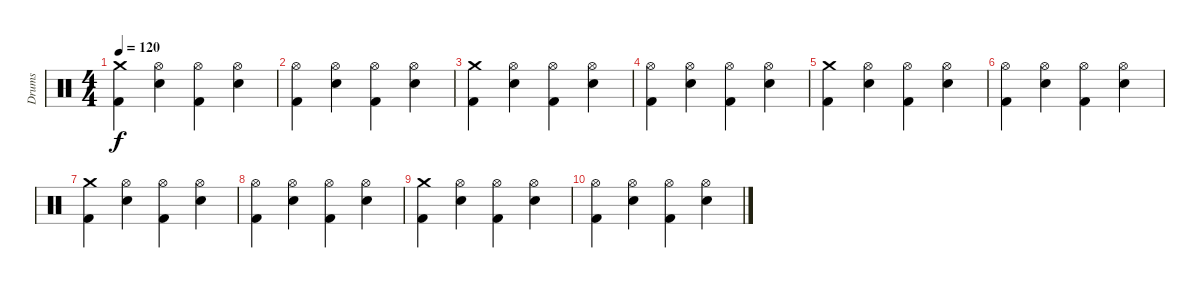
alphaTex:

\track ("Drums" "Drums") {instrument percussion}
\staff {score}
\articulation defaults
\ts (4 4)
\tempo 120
\clef neutral
\ks c
("Crash medium (hit)" "Kick (hit) 2").4{dy f} ("Hi-Hat (open)" "Snare (hit) 2").4 ("Hi-Hat (open)" "Kick (hit) 2").4 ("Hi-Hat (open)" "Snare (hit) 2").4 |
("Hi-Hat (open)" "Kick (hit) 2").4 ("Hi-Hat (open)" "Snare (hit) 2").4 ("Hi-Hat (open)" "Kick (hit) 2").4 ("Hi-Hat (open)" "Snare (hit) 2").4 |
("Crash medium (hit)" "Kick (hit) 2").4{volume 7} ("Hi-Hat (open)" "Snare (hit) 2").4 ("Hi-Hat (open)" "Kick (hit) 2").4 ("Hi-Hat (open)" "Snare (hit) 2").4 |
("Hi-Hat (open)" "Kick (hit) 2").4 ("Hi-Hat (open)" "Snare (hit) 2").4 ("Hi-Hat (open)" "Kick (hit) 2").4 ("Hi-Hat (open)" "Snare (hit) 2").4 |
("Crash medium (hit)" "Kick (hit) 2").4 ("Hi-Hat (open)" "Snare (hit) 2").4 ("Hi-Hat (open)" "Kick (hit) 2").4 ("Hi-Hat (open)" "Snare (hit) 2").4 |
("Hi-Hat (open)" "Kick (hit) 2").4 ("Hi-Hat (open)" "Snare (hit) 2").4 ("Hi-Hat (open)" "Kick (hit) 2").4 ("Hi-Hat (open)" "Snare (hit) 2").4 |
("Crash medium (hit)" "Kick (hit) 2").4{volume 0} ("Hi-Hat (open)" "Snare (hit) 2").4 ("Hi-Hat (open)" "Kick (hit) 2").4 ("Hi-Hat (open)" "Snare (hit) 2").4 |
("Hi-Hat (open)" "Kick (hit) 2").4 ("Hi-Hat (open)" "Snare (hit) 2").4 ("Hi-Hat (open)" "Kick (hit) 2").4 ("Hi-Hat (open)" "Snare (hit) 2").4 |
("Crash medium (hit)" "Kick (hit) 2").4 ("Hi-Hat (open)" "Snare (hit) 2").4 ("Hi-Hat (open)" "Kick (hit) 2").4 ("Hi-Hat (open)" "Snare (hit) 2").4 |
("Hi-Hat (open)" "Kick (hit) 2").4 ("Hi-Hat (open)" "Snare (hit) 2").4 ("Hi-Hat (open)" "Kick (hit) 2").4 ("Hi-Hat (open)" "Snare (hit) 2").4
